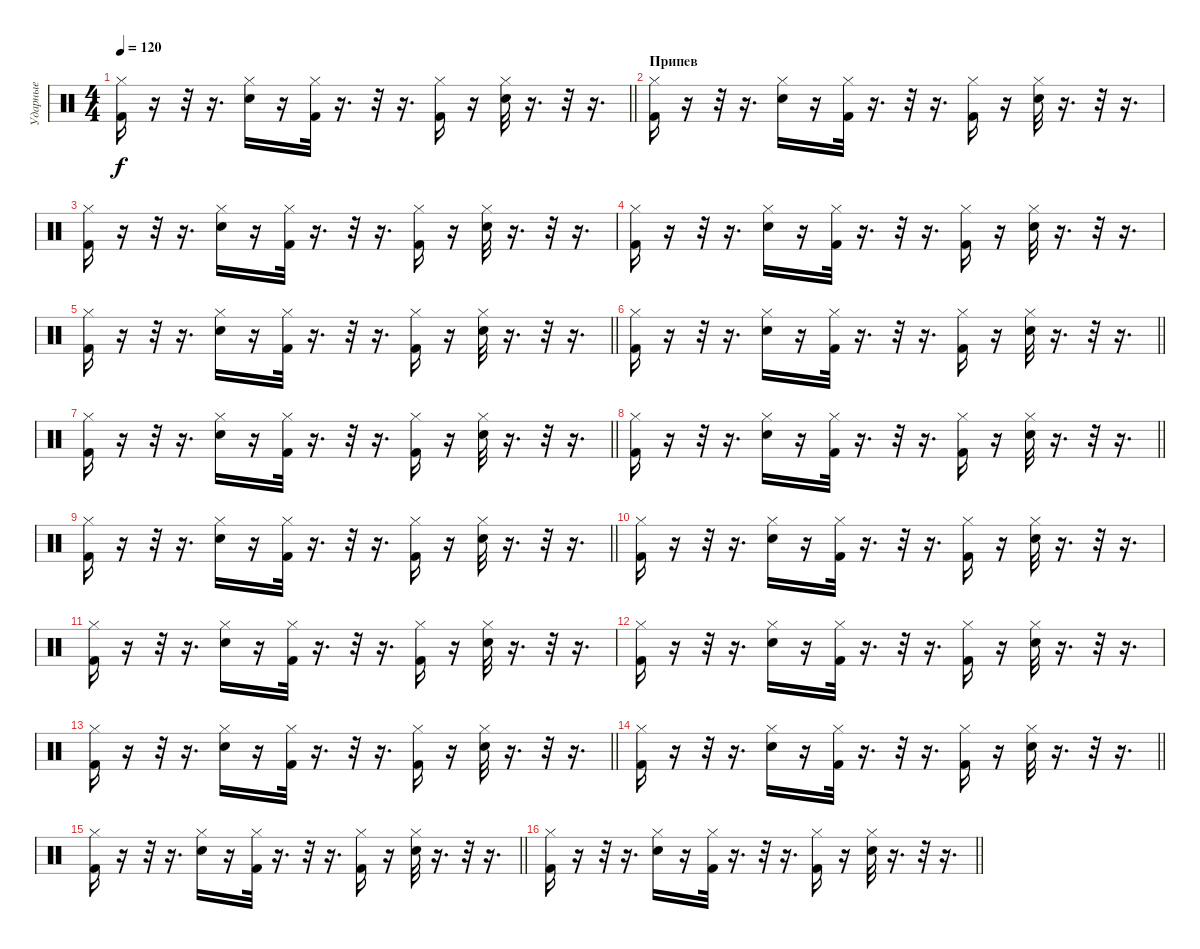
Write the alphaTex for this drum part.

\track ("Ударные" "Ударные") {instrument percussion}
\staff {score}
\articulation defaults
\ts (4 4)
\tempo 120
\clef neutral
\barLineRight lightlight
\ks c
("Hi-Hat (closed)" "Kick (hit) 2").16{dy f} r.16 r.32 r.16{d} ("Hi-Hat (closed)" "Electric Snare (hit)").16 r.16 ("Hi-Hat (closed)" "Kick (hit) 2").32 r.16{d} r.32 r.16{d} ("Kick (hit) 2" "Hi-Hat (closed)").16 r.16 ("Electric Snare (hit)" "Hi-Hat (closed)").32 r.16{d} r.32 r.16{d} |
\section ("" "Припев")
("Hi-Hat (closed)" "Kick (hit) 2").16 r.16 r.32 r.16{d} ("Hi-Hat (closed)" "Electric Snare (hit)").16 r.16 ("Hi-Hat (closed)" "Kick (hit) 2").32 r.16{d} r.32 r.16{d} ("Kick (hit) 2" "Hi-Hat (closed)").16 r.16 ("Electric Snare (hit)" "Hi-Hat (closed)").32 r.16{d} r.32 r.16{d} |
("Hi-Hat (closed)" "Kick (hit) 2").16 r.16 r.32 r.16{d} ("Hi-Hat (closed)" "Electric Snare (hit)").16 r.16 ("Hi-Hat (closed)" "Kick (hit) 2").32 r.16{d} r.32 r.16{d} ("Kick (hit) 2" "Hi-Hat (closed)").16 r.16 ("Electric Snare (hit)" "Hi-Hat (closed)").32 r.16{d} r.32 r.16{d} |
("Hi-Hat (closed)" "Kick (hit) 2").16 r.16 r.32 r.16{d} ("Hi-Hat (closed)" "Electric Snare (hit)").16 r.16 ("Hi-Hat (closed)" "Kick (hit) 2").32 r.16{d} r.32 r.16{d} ("Kick (hit) 2" "Hi-Hat (closed)").16 r.16 ("Electric Snare (hit)" "Hi-Hat (closed)").32 r.16{d} r.32 r.16{d} |
\barLineRight lightlight
("Hi-Hat (closed)" "Kick (hit) 2").16 r.16 r.32 r.16{d} ("Hi-Hat (closed)" "Electric Snare (hit)").16 r.16 ("Hi-Hat (closed)" "Kick (hit) 2").32 r.16{d} r.32 r.16{d} ("Kick (hit) 2" "Hi-Hat (closed)").16 r.16 ("Electric Snare (hit)" "Hi-Hat (closed)").32 r.16{d} r.32 r.16{d} |
\barLineRight lightlight
("Hi-Hat (closed)" "Kick (hit) 2").16 r.16 r.32 r.16{d} ("Hi-Hat (closed)" "Electric Snare (hit)").16 r.16 ("Hi-Hat (closed)" "Kick (hit) 2").32 r.16{d} r.32 r.16{d} ("Kick (hit) 2" "Hi-Hat (closed)").16 r.16 ("Electric Snare (hit)" "Hi-Hat (closed)").32 r.16{d} r.32 r.16{d} |
\barLineRight lightlight
("Hi-Hat (closed)" "Kick (hit) 2").16 r.16 r.32 r.16{d} ("Hi-Hat (closed)" "Electric Snare (hit)").16 r.16 ("Hi-Hat (closed)" "Kick (hit) 2").32 r.16{d} r.32 r.16{d} ("Kick (hit) 2" "Hi-Hat (closed)").16 r.16 ("Electric Snare (hit)" "Hi-Hat (closed)").32 r.16{d} r.32 r.16{d} |
\barLineRight lightlight
("Hi-Hat (closed)" "Kick (hit) 2").16 r.16 r.32 r.16{d} ("Hi-Hat (closed)" "Electric Snare (hit)").16 r.16 ("Hi-Hat (closed)" "Kick (hit) 2").32 r.16{d} r.32 r.16{d} ("Kick (hit) 2" "Hi-Hat (closed)").16 r.16 ("Electric Snare (hit)" "Hi-Hat (closed)").32 r.16{d} r.32 r.16{d} |
\barLineRight lightlight
("Hi-Hat (closed)" "Kick (hit) 2").16 r.16 r.32 r.16{d} ("Hi-Hat (closed)" "Electric Snare (hit)").16 r.16 ("Hi-Hat (closed)" "Kick (hit) 2").32 r.16{d} r.32 r.16{d} ("Kick (hit) 2" "Hi-Hat (closed)").16 r.16 ("Electric Snare (hit)" "Hi-Hat (closed)").32 r.16{d} r.32 r.16{d} |
("Hi-Hat (closed)" "Kick (hit) 2").16 r.16 r.32 r.16{d} ("Hi-Hat (closed)" "Electric Snare (hit)").16 r.16 ("Hi-Hat (closed)" "Kick (hit) 2").32 r.16{d} r.32 r.16{d} ("Kick (hit) 2" "Hi-Hat (closed)").16 r.16 ("Electric Snare (hit)" "Hi-Hat (closed)").32 r.16{d} r.32 r.16{d} |
("Hi-Hat (closed)" "Kick (hit) 2").16 r.16 r.32 r.16{d} ("Hi-Hat (closed)" "Electric Snare (hit)").16 r.16 ("Hi-Hat (closed)" "Kick (hit) 2").32 r.16{d} r.32 r.16{d} ("Kick (hit) 2" "Hi-Hat (closed)").16 r.16 ("Electric Snare (hit)" "Hi-Hat (closed)").32 r.16{d} r.32 r.16{d} |
("Hi-Hat (closed)" "Kick (hit) 2").16 r.16 r.32 r.16{d} ("Hi-Hat (closed)" "Electric Snare (hit)").16 r.16 ("Hi-Hat (closed)" "Kick (hit) 2").32 r.16{d} r.32 r.16{d} ("Kick (hit) 2" "Hi-Hat (closed)").16 r.16 ("Electric Snare (hit)" "Hi-Hat (closed)").32 r.16{d} r.32 r.16{d} |
\barLineRight lightlight
("Hi-Hat (closed)" "Kick (hit) 2").16 r.16 r.32 r.16{d} ("Hi-Hat (closed)" "Electric Snare (hit)").16 r.16 ("Hi-Hat (closed)" "Kick (hit) 2").32 r.16{d} r.32 r.16{d} ("Kick (hit) 2" "Hi-Hat (closed)").16 r.16 ("Electric Snare (hit)" "Hi-Hat (closed)").32 r.16{d} r.32 r.16{d} |
\barLineRight lightlight
("Hi-Hat (closed)" "Kick (hit) 2").16 r.16 r.32 r.16{d} ("Hi-Hat (closed)" "Electric Snare (hit)").16 r.16 ("Hi-Hat (closed)" "Kick (hit) 2").32 r.16{d} r.32 r.16{d} ("Kick (hit) 2" "Hi-Hat (closed)").16 r.16 ("Electric Snare (hit)" "Hi-Hat (closed)").32 r.16{d} r.32 r.16{d} |
\barLineRight lightlight
("Hi-Hat (closed)" "Kick (hit) 2").16 r.16 r.32 r.16{d} ("Hi-Hat (closed)" "Electric Snare (hit)").16 r.16 ("Hi-Hat (closed)" "Kick (hit) 2").32 r.16{d} r.32 r.16{d} ("Kick (hit) 2" "Hi-Hat (closed)").16 r.16 ("Electric Snare (hit)" "Hi-Hat (closed)").32 r.16{d} r.32 r.16{d} |
\barLineRight lightlight
("Hi-Hat (closed)" "Kick (hit) 2").16 r.16 r.32 r.16{d} ("Hi-Hat (closed)" "Electric Snare (hit)").16 r.16 ("Hi-Hat (closed)" "Kick (hit) 2").32 r.16{d} r.32 r.16{d} ("Kick (hit) 2" "Hi-Hat (closed)").16 r.16 ("Electric Snare (hit)" "Hi-Hat (closed)").32 r.16{d} r.32 r.16{d}
